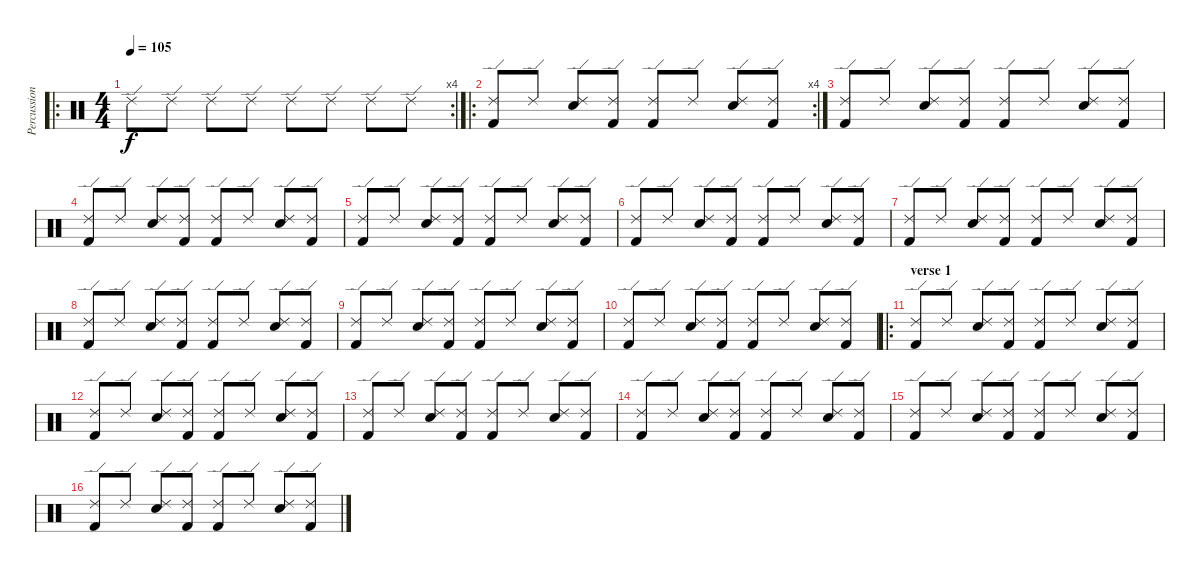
\track ("Percussion" "Percussion") {instrument percussion}
\staff {score}
\articulation defaults
\ro
\rc 4
\ts (4 4)
\tempo 105
\clef neutral
\ks c "Ride (edge) 2".8{dy f} "Ride (edge) 2".8 "Ride (edge) 2".8 "Ride (edge) 2".8 "Ride (edge) 2".8 "Ride (edge) 2".8 "Ride (edge) 2".8 "Ride (edge) 2".8
|
\ro
\rc 4
("Ride (edge) 2" "Kick (hit) 2").8 "Ride (edge) 2".8 ("Ride (edge) 2" "Electric Snare (hit)").8 ("Ride (edge) 2" "Kick (hit) 2").8 ("Ride (edge) 2" "Kick (hit) 2").8 "Ride (edge) 2".8 ("Ride (edge) 2" "Electric Snare (hit)").8 ("Ride (edge) 2" "Kick (hit) 2").8 |
("Ride (edge) 2" "Kick (hit) 2").8 "Ride (edge) 2".8 ("Ride (edge) 2" "Electric Snare (hit)").8 ("Ride (edge) 2" "Kick (hit) 2").8 ("Ride (edge) 2" "Kick (hit) 2").8 "Ride (edge) 2".8 ("Ride (edge) 2" "Electric Snare (hit)").8 ("Ride (edge) 2" "Kick (hit) 2").8 |
("Ride (edge) 2" "Kick (hit) 2").8 "Ride (edge) 2".8 ("Ride (edge) 2" "Electric Snare (hit)").8 ("Ride (edge) 2" "Kick (hit) 2").8 ("Ride (edge) 2" "Kick (hit) 2").8 "Ride (edge) 2".8 ("Ride (edge) 2" "Electric Snare (hit)").8 ("Ride (edge) 2" "Kick (hit) 2").8 |
("Ride (edge) 2" "Kick (hit) 2").8 "Ride (edge) 2".8 ("Ride (edge) 2" "Electric Snare (hit)").8 ("Ride (edge) 2" "Kick (hit) 2").8 ("Ride (edge) 2" "Kick (hit) 2").8 "Ride (edge) 2".8 ("Ride (edge) 2" "Electric Snare (hit)").8 ("Ride (edge) 2" "Kick (hit) 2").8 |
("Ride (edge) 2" "Kick (hit) 2").8 "Ride (edge) 2".8 ("Ride (edge) 2" "Electric Snare (hit)").8 ("Ride (edge) 2" "Kick (hit) 2").8 ("Ride (edge) 2" "Kick (hit) 2").8 "Ride (edge) 2".8 ("Ride (edge) 2" "Electric Snare (hit)").8 ("Ride (edge) 2" "Kick (hit) 2").8 |
("Ride (edge) 2" "Kick (hit) 2").8 "Ride (edge) 2".8 ("Ride (edge) 2" "Electric Snare (hit)").8 ("Ride (edge) 2" "Kick (hit) 2").8 ("Ride (edge) 2" "Kick (hit) 2").8 "Ride (edge) 2".8 ("Ride (edge) 2" "Electric Snare (hit)").8 ("Ride (edge) 2" "Kick (hit) 2").8 |
("Ride (edge) 2" "Kick (hit) 2").8 "Ride (edge) 2".8 ("Ride (edge) 2" "Electric Snare (hit)").8 ("Ride (edge) 2" "Kick (hit) 2").8 ("Ride (edge) 2" "Kick (hit) 2").8 "Ride (edge) 2".8 ("Ride (edge) 2" "Electric Snare (hit)").8 ("Ride (edge) 2" "Kick (hit) 2").8 |
("Ride (edge) 2" "Kick (hit) 2").8 "Ride (edge) 2".8 ("Ride (edge) 2" "Electric Snare (hit)").8 ("Ride (edge) 2" "Kick (hit) 2").8 ("Ride (edge) 2" "Kick (hit) 2").8 "Ride (edge) 2".8 ("Ride (edge) 2" "Electric Snare (hit)").8 ("Ride (edge) 2" "Kick (hit) 2").8 |
("Ride (edge) 2" "Kick (hit) 2").8 "Ride (edge) 2".8 ("Ride (edge) 2" "Electric Snare (hit)").8 ("Ride (edge) 2" "Kick (hit) 2").8 ("Ride (edge) 2" "Kick (hit) 2").8 "Ride (edge) 2".8 ("Ride (edge) 2" "Electric Snare (hit)").8 ("Ride (edge) 2" "Kick (hit) 2").8 |
\ro
\section ("" "verse 1")
("Ride (edge) 2" "Kick (hit) 2").8 "Ride (edge) 2".8 ("Ride (edge) 2" "Electric Snare (hit)").8 ("Ride (edge) 2" "Kick (hit) 2").8 ("Ride (edge) 2" "Kick (hit) 2").8 "Ride (edge) 2".8 ("Ride (edge) 2" "Electric Snare (hit)").8 ("Ride (edge) 2" "Kick (hit) 2").8 |
("Ride (edge) 2" "Kick (hit) 2").8 "Ride (edge) 2".8 ("Ride (edge) 2" "Electric Snare (hit)").8 ("Ride (edge) 2" "Kick (hit) 2").8 ("Ride (edge) 2" "Kick (hit) 2").8 "Ride (edge) 2".8 ("Ride (edge) 2" "Electric Snare (hit)").8 ("Ride (edge) 2" "Kick (hit) 2").8 |
("Ride (edge) 2" "Kick (hit) 2").8 "Ride (edge) 2".8 ("Ride (edge) 2" "Electric Snare (hit)").8 ("Ride (edge) 2" "Kick (hit) 2").8 ("Ride (edge) 2" "Kick (hit) 2").8 "Ride (edge) 2".8 ("Ride (edge) 2" "Electric Snare (hit)").8 ("Ride (edge) 2" "Kick (hit) 2").8 |
("Ride (edge) 2" "Kick (hit) 2").8 "Ride (edge) 2".8 ("Ride (edge) 2" "Electric Snare (hit)").8 ("Ride (edge) 2" "Kick (hit) 2").8 ("Ride (edge) 2" "Kick (hit) 2").8 "Ride (edge) 2".8 ("Ride (edge) 2" "Electric Snare (hit)").8 ("Ride (edge) 2" "Kick (hit) 2").8 |
("Ride (edge) 2" "Kick (hit) 2").8 "Ride (edge) 2".8 ("Ride (edge) 2" "Electric Snare (hit)").8 ("Ride (edge) 2" "Kick (hit) 2").8 ("Ride (edge) 2" "Kick (hit) 2").8 "Ride (edge) 2".8 ("Ride (edge) 2" "Electric Snare (hit)").8 ("Ride (edge) 2" "Kick (hit) 2").8 |
("Ride (edge) 2" "Kick (hit) 2").8 "Ride (edge) 2".8 ("Ride (edge) 2" "Electric Snare (hit)").8 ("Ride (edge) 2" "Kick (hit) 2").8 ("Ride (edge) 2" "Kick (hit) 2").8 "Ride (edge) 2".8 ("Ride (edge) 2" "Electric Snare (hit)").8 ("Ride (edge) 2" "Kick (hit) 2").8
